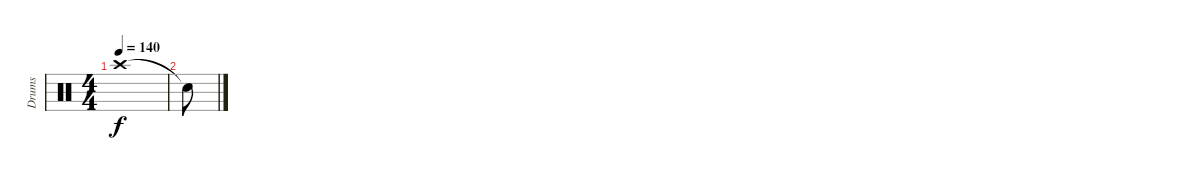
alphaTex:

\track ("Drums" "Drums") {instrument percussion}
\staff {score}
\articulation defaults
\ts (4 4)
\tempo 140
\clef neutral
\ks c "Crash high (hit)".1{dy f}
|
"Snare (hit)"{t}.8
